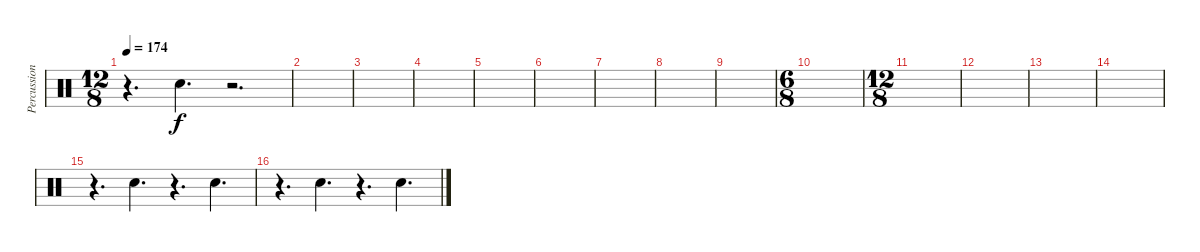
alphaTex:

\track ("Percussion" "Percussion") {instrument percussion}
\staff {score}
\articulation defaults
\ts (12 8)
\tempo 174
\clef neutral
\ks c
r.4{d dy f} "Hand Clap (hit)".4{d} r.2{d} |
|
|
|
|
|
|
|
|
\ts (6 8)
|
\ts (12 8)
|
|
|
|
r.4{d} "Hand Clap (hit)".4{d} r.4{d} "Hand Clap (hit)".4{d} |
r.4{d} "Hand Clap (hit)".4{d} r.4{d} "Hand Clap (hit)".4{d}
